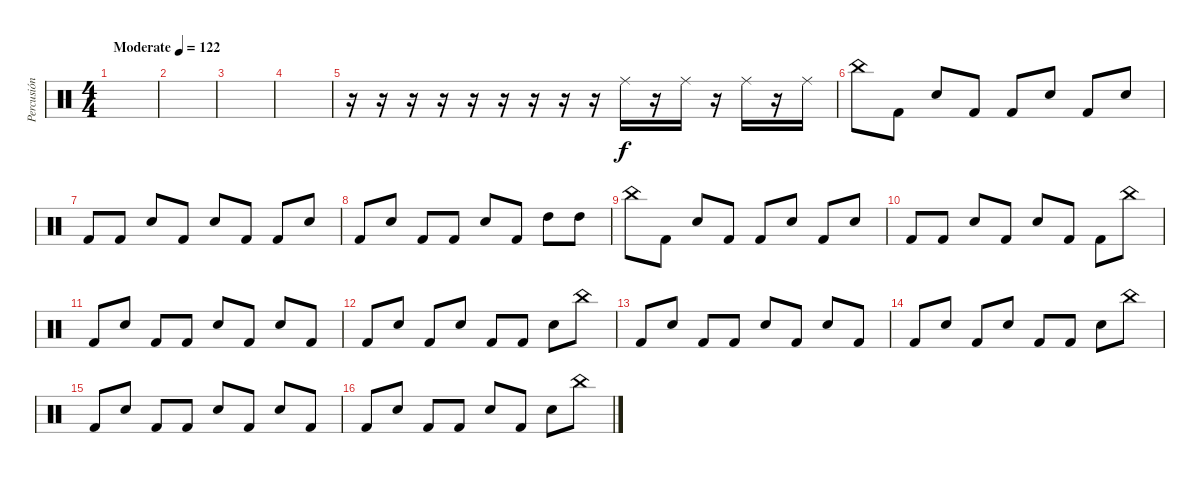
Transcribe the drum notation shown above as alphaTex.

\track ("Percusión" "Percusión") {instrument percussion}
\staff {score}
\articulation defaults
\ts (4 4)
\tempo (122 "Moderate")
\clef neutral
\ks c
|
|
|
|
r.16 r.16 r.16 r.16 r.16 r.16 r.16 r.16 r.16 "Ride (middle)".16 r.16 "Ride (middle)".16 r.16 "Ride (middle)".16 r.16 "Ride (middle)".16 |
"China (hit)".8 "Kick (hit) 2".8 "Electric Snare (hit)".8 "Kick (hit) 2".8 "Kick (hit) 2".8 "Electric Snare (hit)".8 "Kick (hit) 2".8 "Electric Snare (hit)".8 |
"Kick (hit) 2".8 "Kick (hit) 2".8 "Electric Snare (hit)".8 "Kick (hit) 2".8 "Electric Snare (hit)".8 "Kick (hit) 2".8 "Kick (hit) 2".8 "Electric Snare (hit)".8 |
"Kick (hit) 2".8 "Electric Snare (hit)".8 "Kick (hit) 2".8 "Kick (hit) 2".8 "Electric Snare (hit)".8 "Kick (hit) 2".8 "High Tom (hit)".8 "High Tom (hit)".8 |
"China (hit)".8 "Kick (hit) 2".8 "Electric Snare (hit)".8 "Kick (hit) 2".8 "Kick (hit) 2".8 "Electric Snare (hit)".8 "Kick (hit) 2".8 "Electric Snare (hit)".8 |
"Kick (hit) 2".8 "Kick (hit) 2".8 "Electric Snare (hit)".8 "Kick (hit) 2".8 "Electric Snare (hit)".8 "Kick (hit) 2".8 "Kick (hit) 2".8 "China (hit)".8 |
"Kick (hit) 2".8 "Electric Snare (hit)".8 "Kick (hit) 2".8 "Kick (hit) 2".8 "Electric Snare (hit)".8 "Kick (hit) 2".8 "Electric Snare (hit)".8 "Kick (hit) 2".8 |
"Kick (hit) 2".8 "Electric Snare (hit)".8 "Kick (hit) 2".8 "Electric Snare (hit)".8 "Kick (hit) 2".8 "Kick (hit) 2".8 "Electric Snare (hit)".8 "China (hit)".8 |
"Kick (hit) 2".8 "Electric Snare (hit)".8 "Kick (hit) 2".8 "Kick (hit) 2".8 "Electric Snare (hit)".8 "Kick (hit) 2".8 "Electric Snare (hit)".8 "Kick (hit) 2".8 |
"Kick (hit) 2".8 "Electric Snare (hit)".8 "Kick (hit) 2".8 "Electric Snare (hit)".8 "Kick (hit) 2".8 "Kick (hit) 2".8 "Electric Snare (hit)".8 "China (hit)".8 |
"Kick (hit) 2".8 "Electric Snare (hit)".8 "Kick (hit) 2".8 "Kick (hit) 2".8 "Electric Snare (hit)".8 "Kick (hit) 2".8 "Electric Snare (hit)".8 "Kick (hit) 2".8 |
"Kick (hit) 2".8 "Electric Snare (hit)".8 "Kick (hit) 2".8 "Kick (hit) 2".8 "Electric Snare (hit)".8 "Kick (hit) 2".8 "Electric Snare (hit)".8 "China (hit)".8
